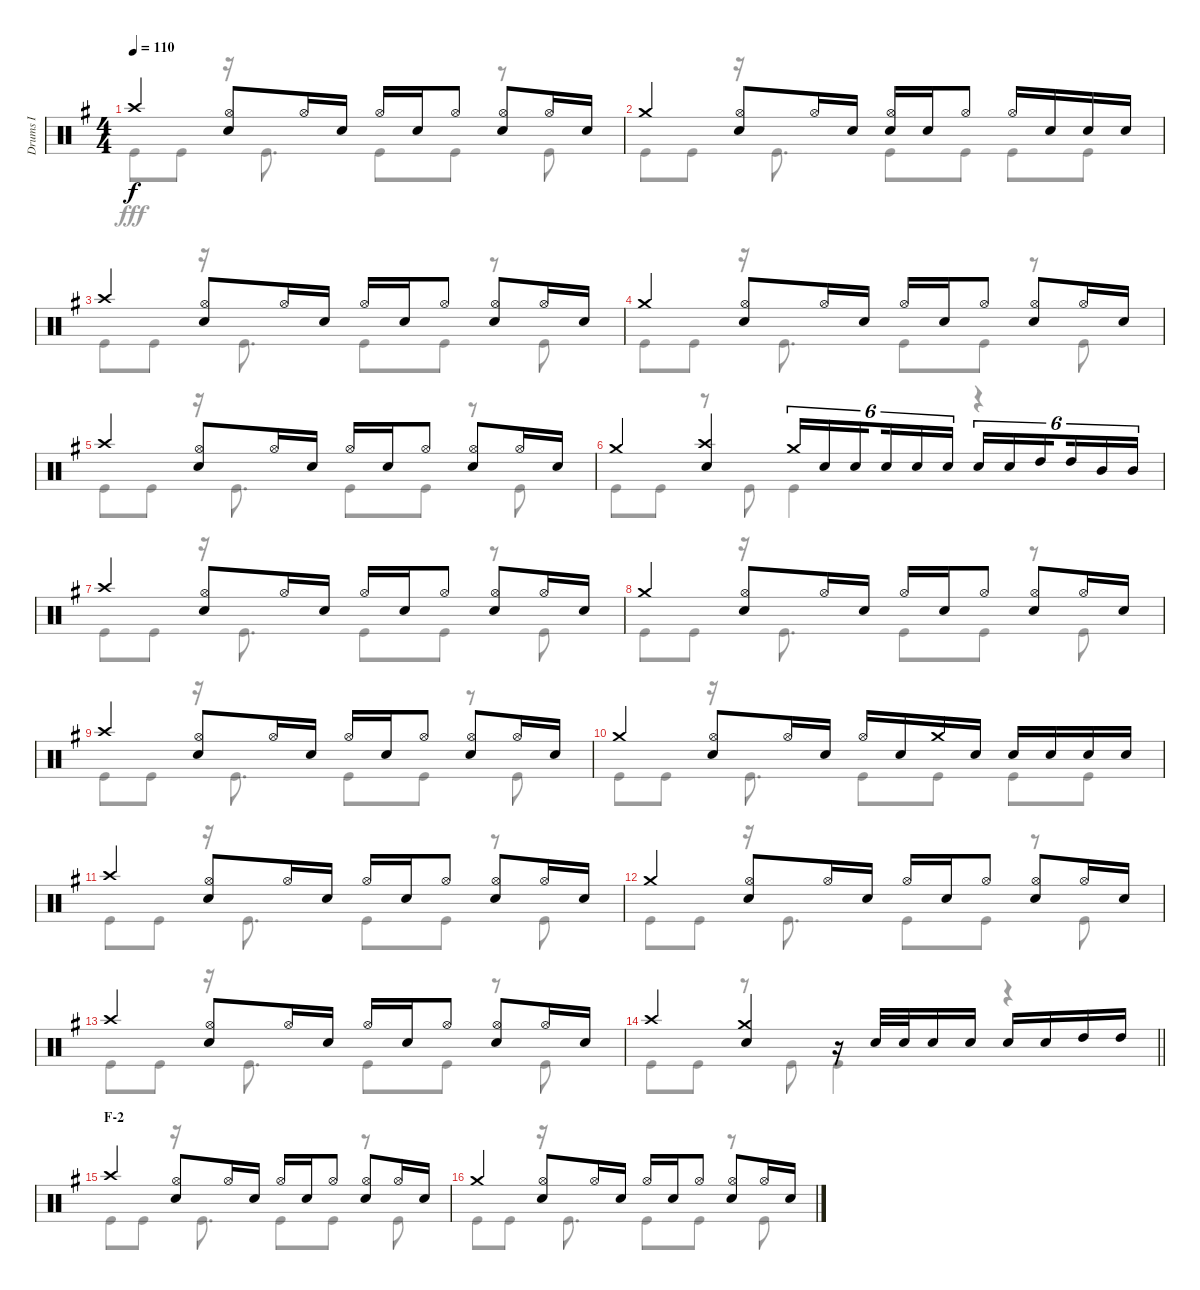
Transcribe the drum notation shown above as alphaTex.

\track ("Drums I" "Drums I") {instrument percussion}
\staff {score}
\articulation defaults
\voice
\ts (4 4)
\tempo 110
\clef neutral
\ks g "Crash high (hit)".4{dy f}
("Hi-Hat (open)" "Snare (hit) 2").8 "Hi-Hat (open)".16 "Snare (hit) 2".16 "Hi-Hat (open)".16 "Snare (hit) 2".16 "Hi-Hat (open)".8 ("Hi-Hat (open)" "Snare (hit) 2").8 "Hi-Hat (open)".16 "Snare (hit) 2".16 |
"Crash medium (hit)".4 ("Hi-Hat (open)" "Snare (hit) 2").8 "Hi-Hat (open)".16 "Snare (hit) 2".16 ("Hi-Hat (open)" "Snare (hit) 2").16 "Snare (hit) 2".16 "Hi-Hat (open)".8 "Hi-Hat (open)".16 "Snare (hit) 2".16 "Snare (hit) 2".16 "Snare (hit) 2".16 |
"Crash high (hit)".4 ("Hi-Hat (open)" "Snare (hit) 2").8 "Hi-Hat (open)".16 "Snare (hit) 2".16 "Hi-Hat (open)".16 "Snare (hit) 2".16 "Hi-Hat (open)".8 ("Hi-Hat (open)" "Snare (hit) 2").8 "Hi-Hat (open)".16 "Snare (hit) 2".16 |
"Crash medium (hit)".4 ("Hi-Hat (open)" "Snare (hit) 2").8 "Hi-Hat (open)".16 "Snare (hit) 2".16 "Hi-Hat (open)".16 "Snare (hit) 2".16 "Hi-Hat (open)".8 ("Hi-Hat (open)" "Snare (hit) 2").8 "Hi-Hat (open)".16 "Snare (hit) 2".16 |
"Crash high (hit)".4 ("Hi-Hat (open)" "Snare (hit) 2").8 "Hi-Hat (open)".16 "Snare (hit) 2".16 "Hi-Hat (open)".16 "Snare (hit) 2".16 "Hi-Hat (open)".8 ("Hi-Hat (open)" "Snare (hit) 2").8 "Hi-Hat (open)".16 "Snare (hit) 2".16 |
"Crash medium (hit)".4 ("Crash high (hit)" "Snare (hit) 2").4 "Crash medium (hit)".16{tu (6 4)} "Snare (hit) 2".16{tu (6 4)} "Snare (hit) 2".16{tu (6 4) beam splitsecondary} "Snare (hit) 2".16{tu (6 4)} "Snare (hit) 2".16{tu (6 4)} "Snare (hit) 2".16{tu (6 4)} "Snare (hit) 2".16{tu (6 4)} "Snare (hit) 2".16{tu (6 4)} "High Tom (hit)".16{tu (6 4) beam splitsecondary} "High Tom (hit)".16{tu (6 4)} "Mid Tom (hit)".16{tu (6 4)} "Mid Tom (hit)".16{tu (6 4)} |
"Crash high (hit)".4 ("Hi-Hat (open)" "Snare (hit) 2").8 "Hi-Hat (open)".16 "Snare (hit) 2".16 "Hi-Hat (open)".16 "Snare (hit) 2".16 "Hi-Hat (open)".8 ("Hi-Hat (open)" "Snare (hit) 2").8 "Hi-Hat (open)".16 "Snare (hit) 2".16 |
"Crash medium (hit)".4 ("Hi-Hat (open)" "Snare (hit) 2").8 "Hi-Hat (open)".16 "Snare (hit) 2".16 "Hi-Hat (open)".16 "Snare (hit) 2".16 "Hi-Hat (open)".8 ("Hi-Hat (open)" "Snare (hit) 2").8 "Hi-Hat (open)".16 "Snare (hit) 2".16 |
"Crash high (hit)".4 ("Hi-Hat (open)" "Snare (hit) 2").8 "Hi-Hat (open)".16 "Snare (hit) 2".16 "Hi-Hat (open)".16 "Snare (hit) 2".16 "Hi-Hat (open)".8 ("Hi-Hat (open)" "Snare (hit) 2").8 "Hi-Hat (open)".16 "Snare (hit) 2".16 |
"Crash medium (hit)".4 ("Hi-Hat (open)" "Snare (hit) 2").8 "Hi-Hat (open)".16 "Snare (hit) 2".16 "Hi-Hat (open)".16 "Snare (hit) 2".16 "Crash medium (hit)".16 "Snare (hit) 2".16 "Snare (hit) 2".16 "Snare (hit) 2".16 "Snare (hit) 2".16 "Snare (hit) 2".16 |
"Crash high (hit)".4 ("Hi-Hat (open)" "Snare (hit) 2").8 "Hi-Hat (open)".16 "Snare (hit) 2".16 "Hi-Hat (open)".16 "Snare (hit) 2".16 "Hi-Hat (open)".8 ("Hi-Hat (open)" "Snare (hit) 2").8 "Hi-Hat (open)".16 "Snare (hit) 2".16 |
"Crash medium (hit)".4 ("Hi-Hat (open)" "Snare (hit) 2").8 "Hi-Hat (open)".16 "Snare (hit) 2".16 "Hi-Hat (open)".16 "Snare (hit) 2".16 "Hi-Hat (open)".8 ("Hi-Hat (open)" "Snare (hit) 2").8 "Hi-Hat (open)".16 "Snare (hit) 2".16 |
"Crash high (hit)".4 ("Hi-Hat (open)" "Snare (hit) 2").8 "Hi-Hat (open)".16 "Snare (hit) 2".16 "Hi-Hat (open)".16 "Snare (hit) 2".16 "Hi-Hat (open)".8 ("Hi-Hat (open)" "Snare (hit) 2").8 "Hi-Hat (open)".16 "Snare (hit) 2".16 |
\barLineRight lightlight "Crash high (hit)".4
("Crash medium (hit)" "Snare (hit) 2").4 r.16 "Snare (hit) 2".32 "Snare (hit) 2".32 "Snare (hit) 2".16 "Snare (hit) 2".16 "Snare (hit) 2".16 "Snare (hit) 2".16 "High Tom (hit)".16 "High Tom (hit)".16 |
\section ("" "F-2")
"Crash high (hit)".4 ("Hi-Hat (open)" "Snare (hit) 2").8 "Hi-Hat (open)".16 "Snare (hit) 2".16 "Hi-Hat (open)".16 "Snare (hit) 2".16 "Hi-Hat (open)".8 ("Hi-Hat (open)" "Snare (hit) 2").8 "Hi-Hat (open)".16 "Snare (hit) 2".16 |
"Crash medium (hit)".4 ("Hi-Hat (open)" "Snare (hit) 2").8 "Hi-Hat (open)".16 "Snare (hit) 2".16 "Hi-Hat (open)".16 "Snare (hit) 2".16 "Hi-Hat (open)".8 ("Hi-Hat (open)" "Snare (hit) 2").8 "Hi-Hat (open)".16 "Snare (hit) 2".16
\voice
\clef neutral
\ottava regular
\simile none
\ks g "Kick (hit)".8{dy fff} "Kick (hit)".8
r.16 "Kick (hit)".8{d} "Kick (hit)".8 "Kick (hit)".8 r.8 "Kick (hit)".8 |
"Kick (hit)".8 "Kick (hit)".8 r.16 "Kick (hit)".8{d} "Kick (hit)".8 "Kick (hit)".8 "Kick (hit)".8 "Kick (hit)".8 |
"Kick (hit)".8 "Kick (hit)".8 r.16 "Kick (hit)".8{d} "Kick (hit)".8 "Kick (hit)".8 r.8 "Kick (hit)".8 |
"Kick (hit)".8 "Kick (hit)".8 r.16 "Kick (hit)".8{d} "Kick (hit)".8 "Kick (hit)".8 r.8 "Kick (hit)".8 |
"Kick (hit)".8 "Kick (hit)".8 r.16 "Kick (hit)".8{d} "Kick (hit)".8 "Kick (hit)".8 r.8 "Kick (hit)".8 |
"Kick (hit)".8 "Kick (hit)".8 r.8 "Kick (hit)".8 "Kick (hit)".4 r.4 |
"Kick (hit)".8 "Kick (hit)".8 r.16 "Kick (hit)".8{d} "Kick (hit)".8 "Kick (hit)".8 r.8 "Kick (hit)".8 |
"Kick (hit)".8 "Kick (hit)".8 r.16 "Kick (hit)".8{d} "Kick (hit)".8 "Kick (hit)".8 r.8 "Kick (hit)".8 |
"Kick (hit)".8 "Kick (hit)".8 r.16 "Kick (hit)".8{d} "Kick (hit)".8 "Kick (hit)".8 r.8 "Kick (hit)".8 |
"Kick (hit)".8 "Kick (hit)".8 r.16 "Kick (hit)".8{d} "Kick (hit)".8 "Kick (hit)".8 "Kick (hit)".8 "Kick (hit)".8 |
"Kick (hit)".8 "Kick (hit)".8 r.16 "Kick (hit)".8{d} "Kick (hit)".8 "Kick (hit)".8 r.8 "Kick (hit)".8 |
"Kick (hit)".8 "Kick (hit)".8 r.16 "Kick (hit)".8{d} "Kick (hit)".8 "Kick (hit)".8 r.8 "Kick (hit)".8 |
"Kick (hit)".8 "Kick (hit)".8 r.16 "Kick (hit)".8{d} "Kick (hit)".8 "Kick (hit)".8 r.8 "Kick (hit)".8 |
\barLineRight lightlight "Kick (hit)".8 "Kick (hit)".8
r.8 "Kick (hit)".8 "Kick (hit)".4 r.4 |
"Kick (hit)".8 "Kick (hit)".8 r.16 "Kick (hit)".8{d} "Kick (hit)".8 "Kick (hit)".8 r.8 "Kick (hit)".8 |
"Kick (hit)".8 "Kick (hit)".8 r.16 "Kick (hit)".8{d} "Kick (hit)".8 "Kick (hit)".8 r.8 "Kick (hit)".8
